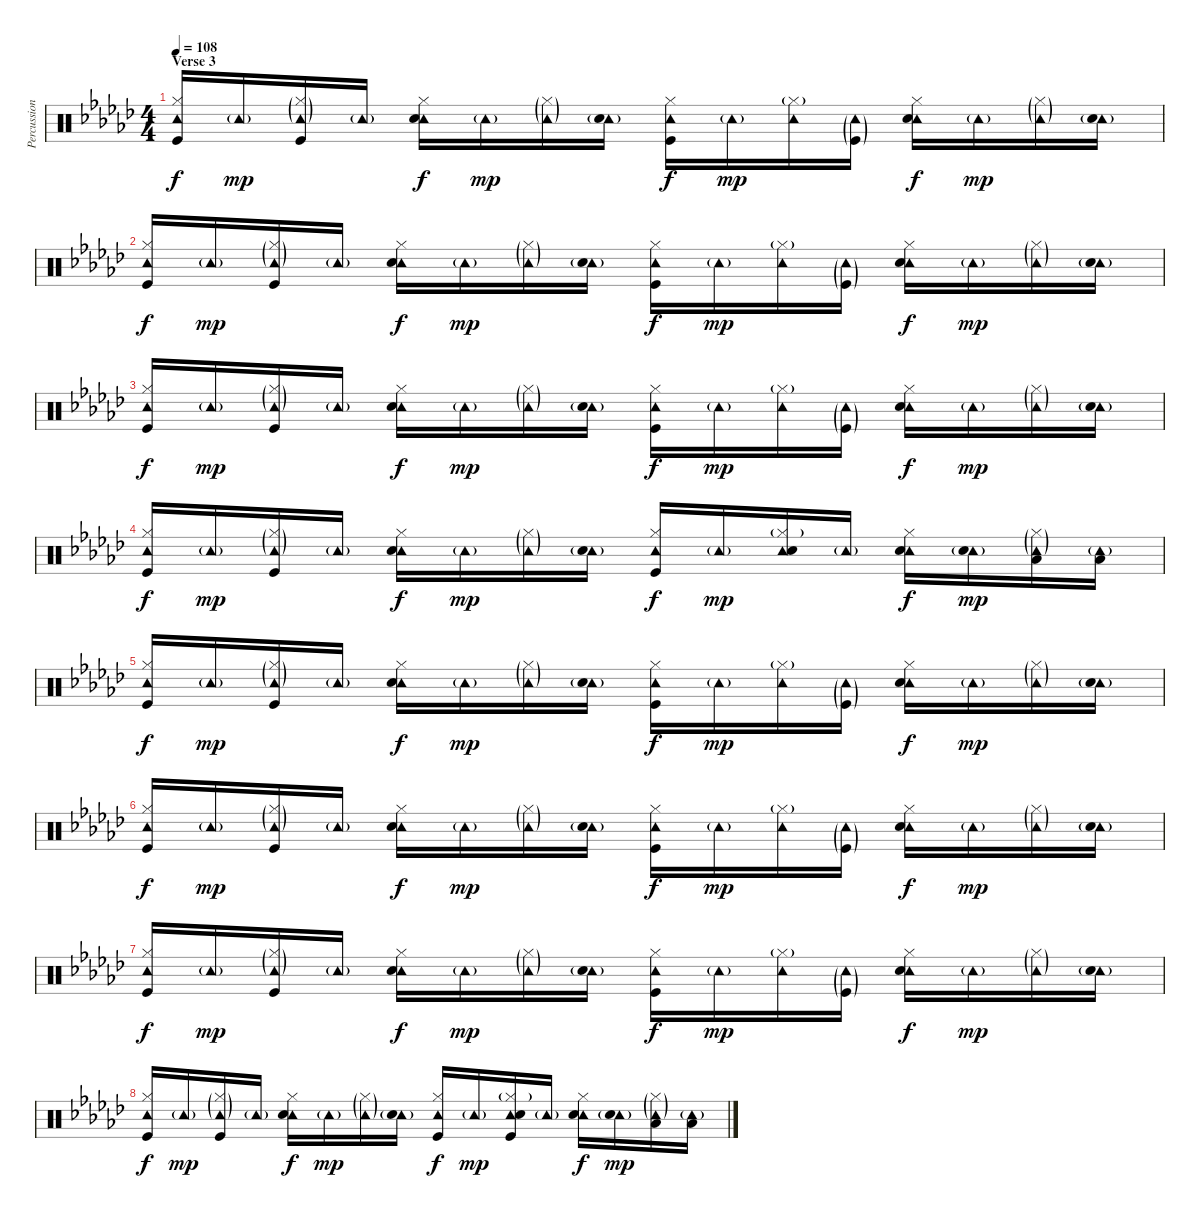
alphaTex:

\track ("Percussion" "Percussion") {instrument percussion}
\staff {score}
\articulation defaults
\ts (4 4)
\section ("" "Verse 3")
\tempo 108
\clef neutral
\ks gb
("Tambourine (hit)" "Hi-Hat (closed)" "Kick (hit)").16{dy f} "Tambourine (hit)"{g}.16{dy mp} ("Tambourine (hit)"{g} "Hi-Hat (closed)"{g} "Kick (hit)").16 "Tambourine (hit)"{g}.16 ("Tambourine (hit)" "Hi-Hat (closed)" "Snare (hit) 2").16{dy f} "Tambourine (hit)"{g}.16{dy mp} ("Tambourine (hit)"{g} "Hi-Hat (closed)"{g}).16 ("Tambourine (hit)"{g} "Snare (hit) 2"{g}).16 ("Tambourine (hit)" "Hi-Hat (closed)" "Kick (hit)").16{dy f} "Tambourine (hit)"{g}.16{dy mp} ("Tambourine (hit)" "Hi-Hat (closed)"{g}).16 ("Tambourine (hit)"{g} "Kick (hit)"{g}).16 ("Tambourine (hit)" "Hi-Hat (closed)" "Snare (hit) 2").16{dy f} "Tambourine (hit)"{g}.16{dy mp} ("Tambourine (hit)"{g} "Hi-Hat (closed)"{g}).16 ("Tambourine (hit)"{g} "Snare (hit) 2"{g}).16 |
("Tambourine (hit)" "Hi-Hat (closed)" "Kick (hit)").16{dy f} "Tambourine (hit)"{g}.16{dy mp} ("Tambourine (hit)"{g} "Hi-Hat (closed)"{g} "Kick (hit)").16 "Tambourine (hit)"{g}.16 ("Tambourine (hit)" "Hi-Hat (closed)" "Snare (hit) 2").16{dy f} "Tambourine (hit)"{g}.16{dy mp} ("Tambourine (hit)"{g} "Hi-Hat (closed)"{g}).16 ("Tambourine (hit)"{g} "Snare (hit) 2"{g}).16 ("Tambourine (hit)" "Hi-Hat (closed)" "Kick (hit)").16{dy f} "Tambourine (hit)"{g}.16{dy mp} ("Tambourine (hit)" "Hi-Hat (closed)"{g}).16 ("Tambourine (hit)"{g} "Kick (hit)"{g}).16 ("Tambourine (hit)" "Hi-Hat (closed)" "Snare (hit) 2").16{dy f} "Tambourine (hit)"{g}.16{dy mp} ("Tambourine (hit)"{g} "Hi-Hat (closed)"{g}).16 ("Tambourine (hit)"{g} "Snare (hit) 2"{g}).16 |
("Tambourine (hit)" "Hi-Hat (closed)" "Kick (hit)").16{dy f} "Tambourine (hit)"{g}.16{dy mp} ("Tambourine (hit)"{g} "Hi-Hat (closed)"{g} "Kick (hit)").16 "Tambourine (hit)"{g}.16 ("Tambourine (hit)" "Hi-Hat (closed)" "Snare (hit) 2").16{dy f} "Tambourine (hit)"{g}.16{dy mp} ("Tambourine (hit)"{g} "Hi-Hat (closed)"{g}).16 ("Tambourine (hit)"{g} "Snare (hit) 2"{g}).16 ("Tambourine (hit)" "Hi-Hat (closed)" "Kick (hit)").16{dy f} "Tambourine (hit)"{g}.16{dy mp} ("Tambourine (hit)" "Hi-Hat (closed)"{g}).16 ("Tambourine (hit)"{g} "Kick (hit)"{g}).16 ("Tambourine (hit)" "Hi-Hat (closed)" "Snare (hit) 2").16{dy f} "Tambourine (hit)"{g}.16{dy mp} ("Tambourine (hit)"{g} "Hi-Hat (closed)"{g}).16 ("Tambourine (hit)"{g} "Snare (hit) 2"{g}).16 |
("Tambourine (hit)" "Hi-Hat (closed)" "Kick (hit)").16{dy f} "Tambourine (hit)"{g}.16{dy mp} ("Tambourine (hit)"{g} "Hi-Hat (closed)"{g} "Kick (hit)").16 "Tambourine (hit)"{g}.16 ("Tambourine (hit)" "Hi-Hat (closed)" "Snare (hit) 2").16{dy f} "Tambourine (hit)"{g}.16{dy mp} ("Tambourine (hit)"{g} "Hi-Hat (closed)"{g}).16 ("Tambourine (hit)"{g} "Snare (hit) 2"{g}).16 ("Tambourine (hit)" "Hi-Hat (closed)" "Kick (hit)").16{dy f} "Tambourine (hit)"{g}.16{dy mp} ("Tambourine (hit)" "Hi-Hat (closed)"{g} "Snare (hit) 2").16 "Tambourine (hit)"{g}.16 ("Tambourine (hit)" "Hi-Hat (closed)" "Snare (hit) 2").16{dy f} ("Tambourine (hit)"{g} "Snare (hit) 2").16{dy mp} ("Tambourine (hit)"{g} "Hi-Hat (closed)"{g} "Low Tom (hit)").16 ("Tambourine (hit)"{g} "Low Tom (hit)").16 |
("Tambourine (hit)" "Hi-Hat (closed)" "Kick (hit)").16{dy f} "Tambourine (hit)"{g}.16{dy mp} ("Tambourine (hit)"{g} "Hi-Hat (closed)"{g} "Kick (hit)").16 "Tambourine (hit)"{g}.16 ("Tambourine (hit)" "Hi-Hat (closed)" "Snare (hit) 2").16{dy f} "Tambourine (hit)"{g}.16{dy mp} ("Tambourine (hit)"{g} "Hi-Hat (closed)"{g}).16 ("Tambourine (hit)"{g} "Snare (hit) 2"{g}).16 ("Tambourine (hit)" "Hi-Hat (closed)" "Kick (hit)").16{dy f} "Tambourine (hit)"{g}.16{dy mp} ("Tambourine (hit)" "Hi-Hat (closed)"{g}).16 ("Tambourine (hit)"{g} "Kick (hit)"{g}).16 ("Tambourine (hit)" "Hi-Hat (closed)" "Snare (hit) 2").16{dy f} "Tambourine (hit)"{g}.16{dy mp} ("Tambourine (hit)"{g} "Hi-Hat (closed)"{g}).16 ("Tambourine (hit)"{g} "Snare (hit) 2"{g}).16 |
("Tambourine (hit)" "Hi-Hat (closed)" "Kick (hit)").16{dy f} "Tambourine (hit)"{g}.16{dy mp} ("Tambourine (hit)"{g} "Hi-Hat (closed)"{g} "Kick (hit)").16 "Tambourine (hit)"{g}.16 ("Tambourine (hit)" "Hi-Hat (closed)" "Snare (hit) 2").16{dy f} "Tambourine (hit)"{g}.16{dy mp} ("Tambourine (hit)"{g} "Hi-Hat (closed)"{g}).16 ("Tambourine (hit)"{g} "Snare (hit) 2"{g}).16 ("Tambourine (hit)" "Hi-Hat (closed)" "Kick (hit)").16{dy f} "Tambourine (hit)"{g}.16{dy mp} ("Tambourine (hit)" "Hi-Hat (closed)"{g}).16 ("Tambourine (hit)"{g} "Kick (hit)"{g}).16 ("Tambourine (hit)" "Hi-Hat (closed)" "Snare (hit) 2").16{dy f} "Tambourine (hit)"{g}.16{dy mp} ("Tambourine (hit)"{g} "Hi-Hat (closed)"{g}).16 ("Tambourine (hit)"{g} "Snare (hit) 2"{g}).16 |
("Tambourine (hit)" "Hi-Hat (closed)" "Kick (hit)").16{dy f} "Tambourine (hit)"{g}.16{dy mp} ("Tambourine (hit)"{g} "Hi-Hat (closed)"{g} "Kick (hit)").16 "Tambourine (hit)"{g}.16 ("Tambourine (hit)" "Hi-Hat (closed)" "Snare (hit) 2").16{dy f} "Tambourine (hit)"{g}.16{dy mp} ("Tambourine (hit)"{g} "Hi-Hat (closed)"{g}).16 ("Tambourine (hit)"{g} "Snare (hit) 2"{g}).16 ("Tambourine (hit)" "Hi-Hat (closed)" "Kick (hit)").16{dy f} "Tambourine (hit)"{g}.16{dy mp} ("Tambourine (hit)" "Hi-Hat (closed)"{g}).16 ("Tambourine (hit)"{g} "Kick (hit)"{g}).16 ("Tambourine (hit)" "Hi-Hat (closed)" "Snare (hit) 2").16{dy f} "Tambourine (hit)"{g}.16{dy mp} ("Tambourine (hit)"{g} "Hi-Hat (closed)"{g}).16 ("Tambourine (hit)"{g} "Snare (hit) 2"{g}).16 |
("Tambourine (hit)" "Hi-Hat (closed)" "Kick (hit)").16{dy f} "Tambourine (hit)"{g}.16{dy mp} ("Tambourine (hit)"{g} "Hi-Hat (closed)"{g} "Kick (hit)").16 "Tambourine (hit)"{g}.16 ("Tambourine (hit)" "Hi-Hat (closed)" "Snare (hit) 2").16{dy f} "Tambourine (hit)"{g}.16{dy mp} ("Tambourine (hit)"{g} "Hi-Hat (closed)"{g}).16 ("Tambourine (hit)"{g} "Snare (hit) 2"{g}).16 ("Tambourine (hit)" "Hi-Hat (closed)" "Kick (hit)").16{dy f} "Tambourine (hit)"{g}.16{dy mp} ("Tambourine (hit)" "Hi-Hat (closed)"{g} "Snare (hit) 2" "Kick (hit)").16 "Tambourine (hit)"{g}.16 ("Tambourine (hit)" "Hi-Hat (closed)" "Snare (hit) 2").16{dy f} ("Tambourine (hit)"{g} "Snare (hit) 2").16{dy mp} ("Tambourine (hit)"{g} "Hi-Hat (closed)"{g} "Low Tom (hit)").16 ("Tambourine (hit)"{g} "Low Tom (hit)").16
